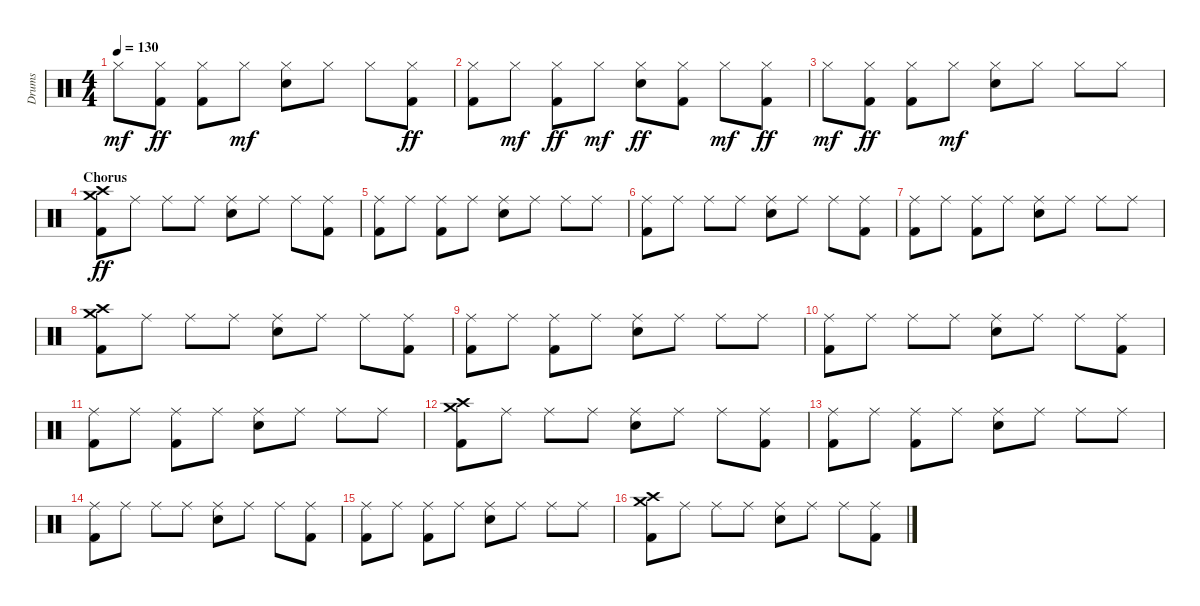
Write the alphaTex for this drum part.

\track ("Drums" "Drums") {instrument percussion}
\staff {score}
\articulation defaults
\ts (4 4)
\tempo 130
\clef neutral
\ks c "Hi-Hat (closed)".8{dy mf}
("Hi-Hat (closed)" "Kick (hit) 2").8{dy ff} ("Hi-Hat (closed)" "Kick (hit) 2").8 "Hi-Hat (closed)".8{dy mf} ("Hi-Hat (closed)" "Snare (hit) 2").8 "Hi-Hat (closed)".8 "Hi-Hat (closed)".8 ("Hi-Hat (closed)" "Kick (hit) 2").8{dy ff} |
("Hi-Hat (closed)" "Kick (hit) 2").8 "Hi-Hat (closed)".8{dy mf} ("Hi-Hat (closed)" "Kick (hit) 2").8{dy ff} "Hi-Hat (closed)".8{dy mf} ("Hi-Hat (closed)" "Snare (hit) 2").8{dy ff} ("Hi-Hat (closed)" "Kick (hit) 2").8 "Hi-Hat (closed)".8{dy mf} ("Hi-Hat (closed)" "Kick (hit) 2").8{dy ff} |
"Hi-Hat (closed)".8{dy mf} ("Hi-Hat (closed)" "Kick (hit) 2").8{dy ff} ("Hi-Hat (closed)" "Kick (hit) 2").8 "Hi-Hat (closed)".8{dy mf} ("Hi-Hat (closed)" "Snare (hit) 2").8 "Hi-Hat (closed)".8 "Hi-Hat (closed)".8 "Hi-Hat (closed)".8 |
\section ("" "Chorus")
("Kick (hit) 2" "Crash medium (hit)" "Crash high (hit)").8{dy ff volume 10} "Ride (middle)".8 "Ride (middle)".8 "Ride (middle)".8 ("Ride (middle)" "Snare (hit) 2").8 "Ride (middle)".8 "Ride (middle)".8 ("Ride (middle)" "Kick (hit) 2").8 |
("Ride (middle)" "Kick (hit) 2").8 "Ride (middle)".8 ("Ride (middle)" "Kick (hit) 2").8 "Ride (middle)".8 ("Ride (middle)" "Snare (hit) 2").8 "Ride (middle)".8 "Ride (middle)".8 "Ride (middle)".8 |
("Ride (middle)" "Kick (hit) 2").8 "Ride (middle)".8 "Ride (middle)".8 "Ride (middle)".8 ("Ride (middle)" "Snare (hit) 2").8 "Ride (middle)".8 "Ride (middle)".8 ("Ride (middle)" "Kick (hit) 2").8 |
("Ride (middle)" "Kick (hit) 2").8 "Ride (middle)".8 ("Ride (middle)" "Kick (hit) 2").8 "Ride (middle)".8 ("Ride (middle)" "Snare (hit) 2").8 "Ride (middle)".8 "Ride (middle)".8 "Ride (middle)".8 |
("Kick (hit) 2" "Crash medium (hit)" "Crash high (hit)").8 "Ride (middle)".8 "Ride (middle)".8 "Ride (middle)".8 ("Ride (middle)" "Snare (hit) 2").8 "Ride (middle)".8 "Ride (middle)".8 ("Ride (middle)" "Kick (hit) 2").8 |
("Ride (middle)" "Kick (hit) 2").8 "Ride (middle)".8 ("Ride (middle)" "Kick (hit) 2").8 "Ride (middle)".8 ("Ride (middle)" "Snare (hit) 2").8 "Ride (middle)".8 "Ride (middle)".8 "Ride (middle)".8 |
("Ride (middle)" "Kick (hit) 2").8 "Ride (middle)".8 "Ride (middle)".8 "Ride (middle)".8 ("Ride (middle)" "Snare (hit) 2").8 "Ride (middle)".8 "Ride (middle)".8 ("Ride (middle)" "Kick (hit) 2").8 |
("Ride (middle)" "Kick (hit) 2").8 "Ride (middle)".8 ("Ride (middle)" "Kick (hit) 2").8 "Ride (middle)".8 ("Ride (middle)" "Snare (hit) 2").8 "Ride (middle)".8 "Ride (middle)".8 "Ride (middle)".8 |
("Kick (hit) 2" "Crash medium (hit)" "Crash high (hit)").8 "Ride (middle)".8 "Ride (middle)".8 "Ride (middle)".8 ("Ride (middle)" "Snare (hit) 2").8 "Ride (middle)".8 "Ride (middle)".8 ("Ride (middle)" "Kick (hit) 2").8 |
("Ride (middle)" "Kick (hit) 2").8 "Ride (middle)".8 ("Ride (middle)" "Kick (hit) 2").8 "Ride (middle)".8 ("Ride (middle)" "Snare (hit) 2").8 "Ride (middle)".8 "Ride (middle)".8 "Ride (middle)".8 |
("Ride (middle)" "Kick (hit) 2").8 "Ride (middle)".8 "Ride (middle)".8 "Ride (middle)".8 ("Ride (middle)" "Snare (hit) 2").8 "Ride (middle)".8 "Ride (middle)".8 ("Ride (middle)" "Kick (hit) 2").8 |
("Ride (middle)" "Kick (hit) 2").8 "Ride (middle)".8 ("Ride (middle)" "Kick (hit) 2").8 "Ride (middle)".8 ("Ride (middle)" "Snare (hit) 2").8 "Ride (middle)".8 "Ride (middle)".8 "Ride (middle)".8 |
("Kick (hit) 2" "Crash medium (hit)" "Crash high (hit)").8 "Ride (middle)".8 "Ride (middle)".8 "Ride (middle)".8 ("Ride (middle)" "Snare (hit) 2").8 "Ride (middle)".8 "Ride (middle)".8 ("Ride (middle)" "Kick (hit) 2").8
